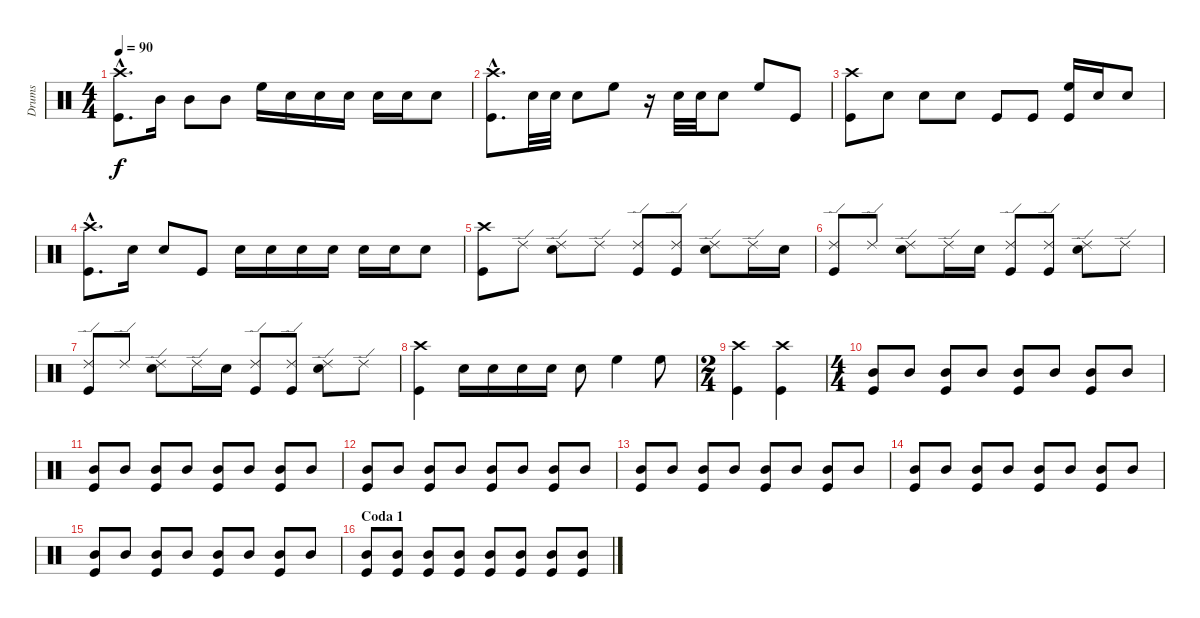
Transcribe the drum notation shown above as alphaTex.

\track ("Drums" "Drums") {instrument percussion}
\staff {score}
\articulation defaults
\ts (4 4)
\tempo 90
\clef neutral
\ks c
("Crash high (hit)"{hac} "Kick (hit)"{hac}).8{d dy f} "Mid Tom (hit)".16 "Mid Tom (hit)".8 "Mid Tom (hit)".8 "High Floor Tom (hit)".16 "Snare (hit) 2".16 "Snare (hit) 2".16 "Snare (hit) 2".16 "Snare (hit) 2".16 "Snare (hit) 2".16 "Snare (hit) 2".8 |
("Crash high (hit)"{hac} "Kick (hit)"{hac}).8{d} "Snare (hit) 2".32 "Snare (hit) 2".32 "Snare (hit) 2".8 "High Floor Tom (hit)".8 r.16 "Snare (hit) 2".32 "Snare (hit) 2".32 "Snare (hit) 2".8 "High Floor Tom (hit)".8 "Kick (hit)".8 |
("Crash high (hit)" "Kick (hit)").8 "Snare (hit) 2".8 "Snare (hit) 2".8 "Snare (hit) 2".8 "Kick (hit)".8 "Kick (hit)".8 ("High Floor Tom (hit)" "Kick (hit)").16 "Snare (hit) 2".16 "Snare (hit) 2".8 |
("Crash high (hit)"{hac} "Kick (hit)"{hac}).8{d} "Snare (hit) 2".16 "Snare (hit) 2".8 "Kick (hit)".8 "Snare (hit) 2".16 "Snare (hit) 2".16 "Snare (hit) 2".16 "Snare (hit) 2".16 "Snare (hit) 2".16 "Snare (hit) 2".16 "Snare (hit) 2".8 |
("Crash high (hit)" "Kick (hit)").8 "Ride (edge) 2".8 ("Ride (edge) 2" "Snare (hit) 2").8 "Ride (edge) 2".8 ("Ride (edge) 2" "Kick (hit)").8 ("Ride (edge) 2" "Kick (hit)").8 ("Ride (edge) 2" "Snare (hit) 2").8 "Ride (edge) 2".16 "Snare (hit) 2".16 |
("Ride (edge) 2" "Kick (hit)").8 "Ride (edge) 2".8 ("Ride (edge) 2" "Snare (hit) 2").8 "Ride (edge) 2".16 "Snare (hit) 2".16 ("Ride (edge) 2" "Kick (hit)").8 ("Ride (edge) 2" "Kick (hit)").8 ("Ride (edge) 2" "Snare (hit) 2").8 "Ride (edge) 2".8 |
("Ride (edge) 2" "Kick (hit)").8 "Ride (edge) 2".8 ("Ride (edge) 2" "Snare (hit) 2").8 "Ride (edge) 2".16 "Snare (hit) 2".16 ("Ride (edge) 2" "Kick (hit)").8 ("Ride (edge) 2" "Kick (hit)").8 ("Ride (edge) 2" "Snare (hit) 2").8 "Ride (edge) 2".8 |
("Crash high (hit)" "Kick (hit)").4 "Snare (hit) 2".16 "Snare (hit) 2".16 "Snare (hit) 2".16 "Snare (hit) 2".16 "Snare (hit) 2".8 "High Floor Tom (hit)".4 "High Floor Tom (hit)".8 |
\ts (2 4)
("Crash high (hit)" "Kick (hit)").4 ("Crash high (hit)" "Kick (hit)").4 |
\ts (4 4)
("Mid Tom (hit)" "Kick (hit)").8 "Mid Tom (hit)".8 ("Mid Tom (hit)" "Kick (hit)").8 "Mid Tom (hit)".8 ("Mid Tom (hit)" "Kick (hit)").8 "Mid Tom (hit)".8 ("Mid Tom (hit)" "Kick (hit)").8 "Mid Tom (hit)".8 |
("Mid Tom (hit)" "Kick (hit)").8 "Mid Tom (hit)".8 ("Mid Tom (hit)" "Kick (hit)").8 "Mid Tom (hit)".8 ("Mid Tom (hit)" "Kick (hit)").8 "Mid Tom (hit)".8 ("Mid Tom (hit)" "Kick (hit)").8 "Mid Tom (hit)".8 |
("Mid Tom (hit)" "Kick (hit)").8 "Mid Tom (hit)".8 ("Mid Tom (hit)" "Kick (hit)").8 "Mid Tom (hit)".8 ("Mid Tom (hit)" "Kick (hit)").8 "Mid Tom (hit)".8 ("Mid Tom (hit)" "Kick (hit)").8 "Mid Tom (hit)".8 |
("Mid Tom (hit)" "Kick (hit)").8 "Mid Tom (hit)".8 ("Mid Tom (hit)" "Kick (hit)").8 "Mid Tom (hit)".8 ("Mid Tom (hit)" "Kick (hit)").8 "Mid Tom (hit)".8 ("Mid Tom (hit)" "Kick (hit)").8 "Mid Tom (hit)".8 |
("Mid Tom (hit)" "Kick (hit)").8 "Mid Tom (hit)".8 ("Mid Tom (hit)" "Kick (hit)").8 "Mid Tom (hit)".8 ("Mid Tom (hit)" "Kick (hit)").8 "Mid Tom (hit)".8 ("Mid Tom (hit)" "Kick (hit)").8 "Mid Tom (hit)".8 |
("Mid Tom (hit)" "Kick (hit)").8 "Mid Tom (hit)".8 ("Mid Tom (hit)" "Kick (hit)").8 "Mid Tom (hit)".8 ("Mid Tom (hit)" "Kick (hit)").8 "Mid Tom (hit)".8 ("Mid Tom (hit)" "Kick (hit)").8 "Mid Tom (hit)".8 |
\section ("" "Coda 1")
("Mid Tom (hit)" "Kick (hit)").8 ("Mid Tom (hit)" "Kick (hit)").8 ("Mid Tom (hit)" "Kick (hit)").8 ("Mid Tom (hit)" "Kick (hit)").8 ("Mid Tom (hit)" "Kick (hit)").8 ("Mid Tom (hit)" "Kick (hit)").8 ("Mid Tom (hit)" "Kick (hit)").8 ("Mid Tom (hit)" "Kick (hit)").8
